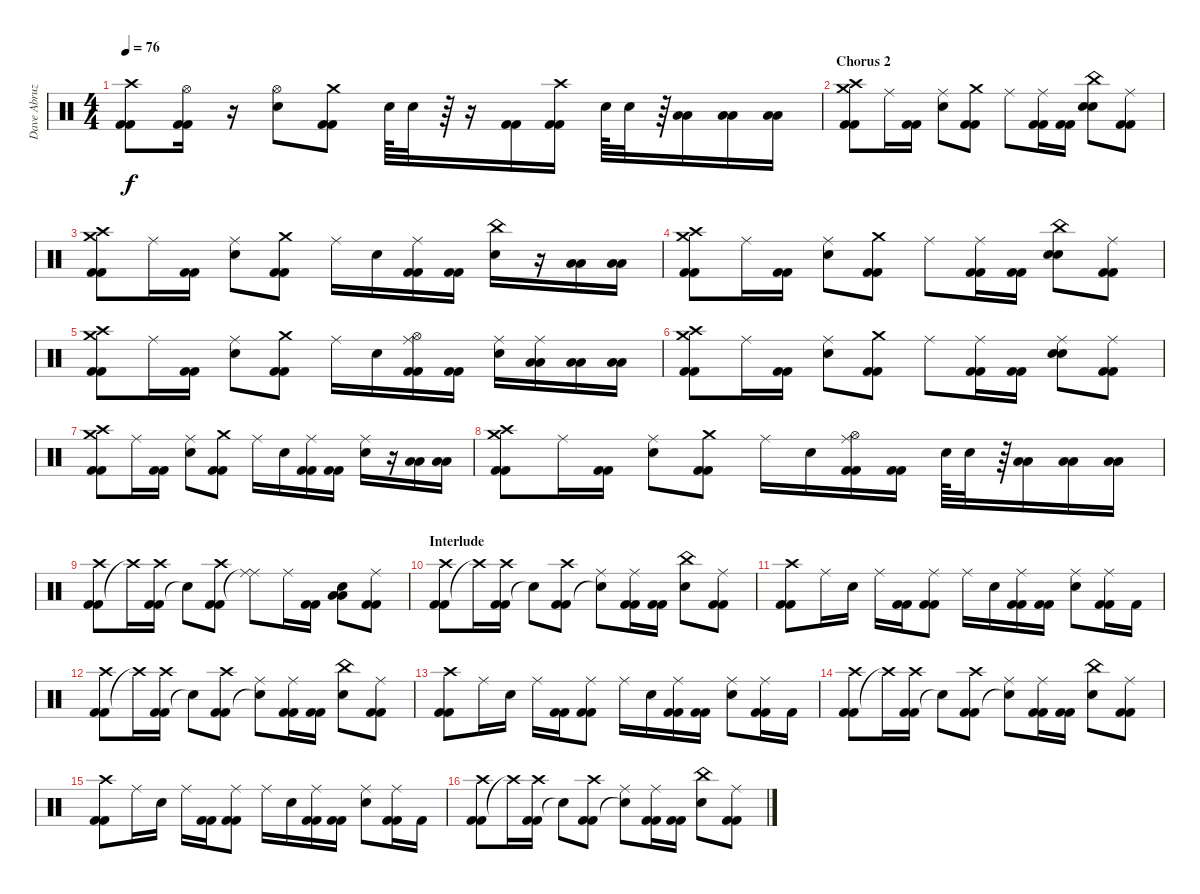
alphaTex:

\track ("Dave Abruzzese" "Dave Abruz") {instrument percussion}
\staff {score}
\articulation defaults
\ts (4 4)
\tempo 76
\clef neutral
\ks c
("Kick (hit) 2" "Kick (hit) 2" "Crash high (hit)").8{dy f} ("Kick (hit) 2" "Kick (hit) 2" "Hi-Hat (open)").16 r.16 ("Electric Snare (hit)" "Hi-Hat (open)").8 ("Kick (hit) 2" "Kick (hit) 2" "Crash medium (hit)").8 "Electric Snare (hit)".64 "Electric Snare (hit)".32 r.64 r.16 ("Kick (hit) 2" "Kick (hit) 2").16 ("Kick (hit) 2" "Kick (hit) 2" "Crash high (hit)").16 "Electric Snare (hit)".64 "Electric Snare (hit)".32 r.64 ("Low Tom (hit)" "Low Tom (hit)").16 ("Low Tom (hit)" "Low Tom (hit)").16 ("Low Tom (hit)" "Low Tom (hit)").16 |
\section ("" "Chorus 2")
("Crash medium (hit)" "Kick (hit) 2" "Kick (hit) 2" "Crash high (hit)").8 "Ride (middle)".16 ("Kick (hit) 2" "Kick (hit) 2").16 ("Electric Snare (hit)" "Ride (middle)").8 ("Kick (hit) 2" "Kick (hit) 2" "Crash medium (hit)").8 "Ride (middle)".8 ("Kick (hit) 2" "Kick (hit) 2" "Ride (middle)").16 ("Kick (hit) 2" "Kick (hit) 2").16 ("Electric Snare (hit)" "Electric Snare (hit)" "China (hit)").8 ("Kick (hit) 2" "Kick (hit) 2" "Ride (middle)").8 |
("Crash medium (hit)" "Kick (hit) 2" "Kick (hit) 2" "Crash high (hit)").8 "Ride (middle)".16 ("Kick (hit) 2" "Kick (hit) 2").16 ("Electric Snare (hit)" "Ride (middle)").8 ("Kick (hit) 2" "Kick (hit) 2" "Crash medium (hit)").8 "Ride (middle)".16 "Electric Snare (hit)".16 ("Kick (hit) 2" "Kick (hit) 2" "Ride (middle)").16 ("Kick (hit) 2" "Kick (hit) 2").16 ("Electric Snare (hit)" "China (hit)").16 r.16 ("Low Tom (hit)" "Low Tom (hit)").16 ("Low Tom (hit)" "Low Tom (hit)").16 |
("Crash medium (hit)" "Kick (hit) 2" "Kick (hit) 2" "Crash high (hit)").8 "Ride (middle)".16 ("Kick (hit) 2" "Kick (hit) 2").16 ("Electric Snare (hit)" "Ride (middle)").8 ("Kick (hit) 2" "Kick (hit) 2" "Crash medium (hit)").8 "Ride (middle)".8 ("Kick (hit) 2" "Kick (hit) 2" "Ride (middle)").16 ("Kick (hit) 2" "Kick (hit) 2").16 ("Electric Snare (hit)" "Electric Snare (hit)" "China (hit)").8 ("Kick (hit) 2" "Kick (hit) 2" "Ride (middle)").8 |
("Crash medium (hit)" "Kick (hit) 2" "Kick (hit) 2" "Crash high (hit)").8 "Ride (middle)".16 ("Kick (hit) 2" "Kick (hit) 2").16 ("Electric Snare (hit)" "Ride (middle)").8 ("Kick (hit) 2" "Kick (hit) 2" "Crash medium (hit)").8 "Ride (middle)".16 "Electric Snare (hit)".16 ("Hi-Hat (open)" "Kick (hit) 2" "Kick (hit) 2" "Ride (middle)").16 ("Kick (hit) 2" "Kick (hit) 2").16 ("Electric Snare (hit)" "Ride (middle)").16 ("Low Tom (hit)" "Low Tom (hit)" "Ride (middle)").16 ("Low Tom (hit)" "Low Tom (hit)").16 ("Low Tom (hit)" "Low Tom (hit)").16 |
("Crash medium (hit)" "Kick (hit) 2" "Kick (hit) 2" "Crash high (hit)").8 "Ride (middle)".16 ("Kick (hit) 2" "Kick (hit) 2").16 ("Electric Snare (hit)" "Ride (middle)").8 ("Kick (hit) 2" "Kick (hit) 2" "Crash medium (hit)").8 "Ride (middle)".8 ("Kick (hit) 2" "Kick (hit) 2" "Ride (middle)").16 ("Kick (hit) 2" "Kick (hit) 2").16 ("Electric Snare (hit)" "Electric Snare (hit)" "Ride (middle)").8 ("Kick (hit) 2" "Kick (hit) 2" "Ride (middle)").8 |
("Crash medium (hit)" "Kick (hit) 2" "Kick (hit) 2" "Crash high (hit)").8 "Ride (middle)".16 ("Kick (hit) 2" "Kick (hit) 2").16 ("Electric Snare (hit)" "Ride (middle)").8 ("Kick (hit) 2" "Kick (hit) 2" "Crash medium (hit)").8 "Ride (middle)".16 "Electric Snare (hit)".16 ("Kick (hit) 2" "Kick (hit) 2" "Ride (middle)").16 ("Kick (hit) 2" "Kick (hit) 2").16 ("Electric Snare (hit)" "Ride (middle)").16 r.16 ("Low Tom (hit)" "Low Tom (hit)").16 ("Low Tom (hit)" "Low Tom (hit)").16 |
("Crash medium (hit)" "Kick (hit) 2" "Kick (hit) 2" "Crash high (hit)").8 "Ride (middle)".16 ("Kick (hit) 2" "Kick (hit) 2").16 ("Electric Snare (hit)" "Ride (middle)").8 ("Kick (hit) 2" "Kick (hit) 2" "Crash medium (hit)").8 "Ride (middle)".16 "Electric Snare (hit)".16 ("Hi-Hat (open)" "Kick (hit) 2" "Kick (hit) 2" "Ride (middle)").16 ("Kick (hit) 2" "Kick (hit) 2").16 "Electric Snare (hit)".64 "Electric Snare (hit)".32 r.64 ("Low Tom (hit)" "Low Tom (hit)").16 ("Low Tom (hit)" "Low Tom (hit)").16 ("Low Tom (hit)" "Low Tom (hit)").16 |
("Kick (hit) 2" "Kick (hit) 2" "Crash high (hit)").8 "Crash high (hit)"{t}.16 ("Kick (hit) 2" "Kick (hit) 2" "Crash high (hit)").16 "Snare (hit)"{t}.8 ("Kick (hit) 2" "Kick (hit) 2" "Crash high (hit)").8 ("Ride (middle)" "Ride (middle)"{t}).8 "Ride (middle)".16 ("Kick (hit) 2" "Kick (hit) 2").16 ("Low Tom (hit)" "Low Tom (hit)" "Electric Snare (hit)").8 ("Kick (hit) 2" "Kick (hit) 2" "Ride (middle)").8 |
\section ("" "Interlude")
("Kick (hit) 2" "Kick (hit) 2" "Crash high (hit)").8 "Crash high (hit)"{t}.16 ("Kick (hit) 2" "Kick (hit) 2" "Crash high (hit)").16 "Snare (hit)"{t}.8 ("Kick (hit) 2" "Kick (hit) 2" "Crash high (hit)").8 ("Ride (middle)" "Snare (hit)"{t}).8 ("Kick (hit) 2" "Kick (hit) 2" "Ride (middle)").16 ("Kick (hit) 2" "Kick (hit) 2").16 ("Electric Snare (hit)" "China (hit)").8 ("Kick (hit) 2" "Kick (hit) 2" "Ride (middle)").8 |
("Kick (hit) 2" "Kick (hit) 2" "Crash high (hit)").8 "Ride (middle)".16 "Electric Snare (hit)".16 "Ride (middle)".16 ("Kick (hit) 2" "Kick (hit) 2").16 ("Kick (hit) 2" "Kick (hit) 2" "Ride (middle)").8 "Ride (middle)".16 "Electric Snare (hit)".16 ("Kick (hit) 2" "Kick (hit) 2" "Ride (middle)").16 ("Kick (hit) 2" "Kick (hit) 2").16 ("Electric Snare (hit)" "Ride (middle)").8 ("Kick (hit) 2" "Kick (hit) 2" "Ride (middle)").16 "Kick (hit) 2".16 |
("Kick (hit) 2" "Kick (hit) 2" "Crash high (hit)").8 "Crash high (hit)"{t}.16 ("Kick (hit) 2" "Kick (hit) 2" "Crash high (hit)").16 "Snare (hit)"{t}.8 ("Kick (hit) 2" "Kick (hit) 2" "Crash high (hit)").8 ("Ride (middle)" "Snare (hit)"{t}).8 ("Kick (hit) 2" "Kick (hit) 2" "Ride (middle)").16 ("Kick (hit) 2" "Kick (hit) 2").16 ("Electric Snare (hit)" "China (hit)").8 ("Kick (hit) 2" "Kick (hit) 2" "Ride (middle)").8 |
("Kick (hit) 2" "Kick (hit) 2" "Crash high (hit)").8 "Ride (middle)".16 "Electric Snare (hit)".16 "Ride (middle)".16 ("Kick (hit) 2" "Kick (hit) 2").16 ("Kick (hit) 2" "Kick (hit) 2" "Ride (middle)").8 "Ride (middle)".16 "Electric Snare (hit)".16 ("Kick (hit) 2" "Kick (hit) 2" "Ride (middle)").16 ("Kick (hit) 2" "Kick (hit) 2").16 ("Electric Snare (hit)" "Ride (middle)").8 ("Kick (hit) 2" "Kick (hit) 2" "Ride (middle)").16 "Kick (hit) 2".16 |
("Kick (hit) 2" "Kick (hit) 2" "Crash high (hit)").8 "Crash high (hit)"{t}.16 ("Kick (hit) 2" "Kick (hit) 2" "Crash high (hit)").16 "Snare (hit)"{t}.8 ("Kick (hit) 2" "Kick (hit) 2" "Crash high (hit)").8 ("Ride (middle)" "Snare (hit)"{t}).8 ("Kick (hit) 2" "Kick (hit) 2" "Ride (middle)").16 ("Kick (hit) 2" "Kick (hit) 2").16 ("Electric Snare (hit)" "China (hit)").8 ("Kick (hit) 2" "Kick (hit) 2" "Ride (middle)").8 |
("Kick (hit) 2" "Kick (hit) 2" "Crash high (hit)").8 "Ride (middle)".16 "Electric Snare (hit)".16 "Ride (middle)".16 ("Kick (hit) 2" "Kick (hit) 2").16 ("Kick (hit) 2" "Kick (hit) 2" "Ride (middle)").8 "Ride (middle)".16 "Electric Snare (hit)".16 ("Kick (hit) 2" "Kick (hit) 2" "Ride (middle)").16 ("Kick (hit) 2" "Kick (hit) 2").16 ("Electric Snare (hit)" "Ride (middle)").8 ("Kick (hit) 2" "Kick (hit) 2" "Ride (middle)").16 "Kick (hit) 2".16 |
("Kick (hit) 2" "Kick (hit) 2" "Crash high (hit)").8 "Crash high (hit)"{t}.16 ("Kick (hit) 2" "Kick (hit) 2" "Crash high (hit)").16 "Snare (hit)"{t}.8 ("Kick (hit) 2" "Kick (hit) 2" "Crash high (hit)").8 ("Ride (middle)" "Snare (hit)"{t}).8 ("Kick (hit) 2" "Kick (hit) 2" "Ride (middle)").16 ("Kick (hit) 2" "Kick (hit) 2").16 ("Electric Snare (hit)" "China (hit)").8 ("Kick (hit) 2" "Kick (hit) 2" "Ride (middle)").8
